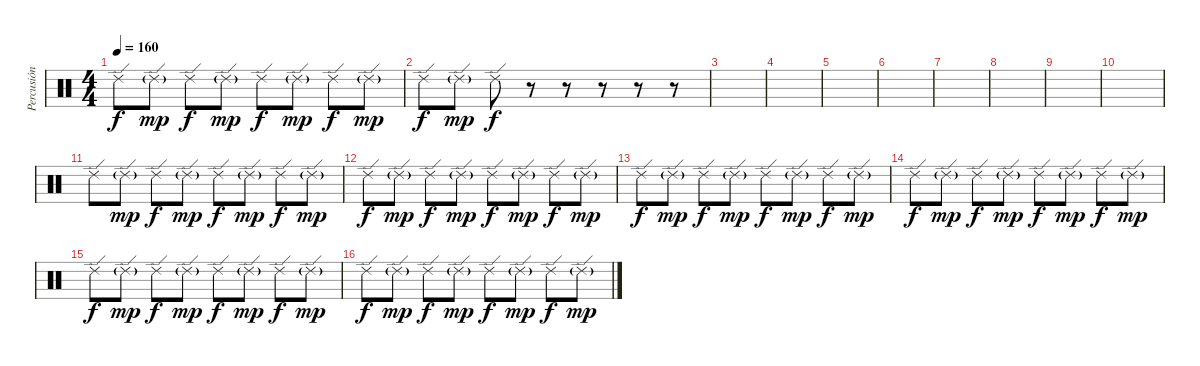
\track ("Percusión" "Percusión") {instrument percussion}
\staff {score}
\articulation defaults
\ts (4 4)
\tempo 160
\clef neutral
\ks c "Ride (edge) 2".8{dy f} "Ride (edge) 2"{g}.8{dy mp} "Ride (edge) 2".8{dy f} "Ride (edge) 2"{g}.8{dy mp} "Ride (edge) 2".8{dy f} "Ride (edge) 2"{g}.8{dy mp} "Ride (edge) 2".8{dy f} "Ride (edge) 2"{g}.8{dy mp}
|
"Ride (edge) 2".8{dy f} "Ride (edge) 2"{g}.8{dy mp} "Ride (edge) 2".8{dy f} r.8 r.8 r.8 r.8 r.8 |
|
|
|
|
|
|
|
|
"Ride (edge) 2".8 "Ride (edge) 2"{g}.8{dy mp} "Ride (edge) 2".8{dy f} "Ride (edge) 2"{g}.8{dy mp} "Ride (edge) 2".8{dy f} "Ride (edge) 2"{g}.8{dy mp} "Ride (edge) 2".8{dy f} "Ride (edge) 2"{g}.8{dy mp} |
"Ride (edge) 2".8{dy f} "Ride (edge) 2"{g}.8{dy mp} "Ride (edge) 2".8{dy f} "Ride (edge) 2"{g}.8{dy mp} "Ride (edge) 2".8{dy f} "Ride (edge) 2"{g}.8{dy mp} "Ride (edge) 2".8{dy f} "Ride (edge) 2"{g}.8{dy mp} |
"Ride (edge) 2".8{dy f} "Ride (edge) 2"{g}.8{dy mp} "Ride (edge) 2".8{dy f} "Ride (edge) 2"{g}.8{dy mp} "Ride (edge) 2".8{dy f} "Ride (edge) 2"{g}.8{dy mp} "Ride (edge) 2".8{dy f} "Ride (edge) 2"{g}.8{dy mp} |
"Ride (edge) 2".8{dy f} "Ride (edge) 2"{g}.8{dy mp} "Ride (edge) 2".8{dy f} "Ride (edge) 2"{g}.8{dy mp} "Ride (edge) 2".8{dy f} "Ride (edge) 2"{g}.8{dy mp} "Ride (edge) 2".8{dy f} "Ride (edge) 2"{g}.8{dy mp} |
"Ride (edge) 2".8{dy f} "Ride (edge) 2"{g}.8{dy mp} "Ride (edge) 2".8{dy f} "Ride (edge) 2"{g}.8{dy mp} "Ride (edge) 2".8{dy f} "Ride (edge) 2"{g}.8{dy mp} "Ride (edge) 2".8{dy f} "Ride (edge) 2"{g}.8{dy mp} |
"Ride (edge) 2".8{dy f} "Ride (edge) 2"{g}.8{dy mp} "Ride (edge) 2".8{dy f} "Ride (edge) 2"{g}.8{dy mp} "Ride (edge) 2".8{dy f} "Ride (edge) 2"{g}.8{dy mp} "Ride (edge) 2".8{dy f} "Ride (edge) 2"{g}.8{dy mp}
